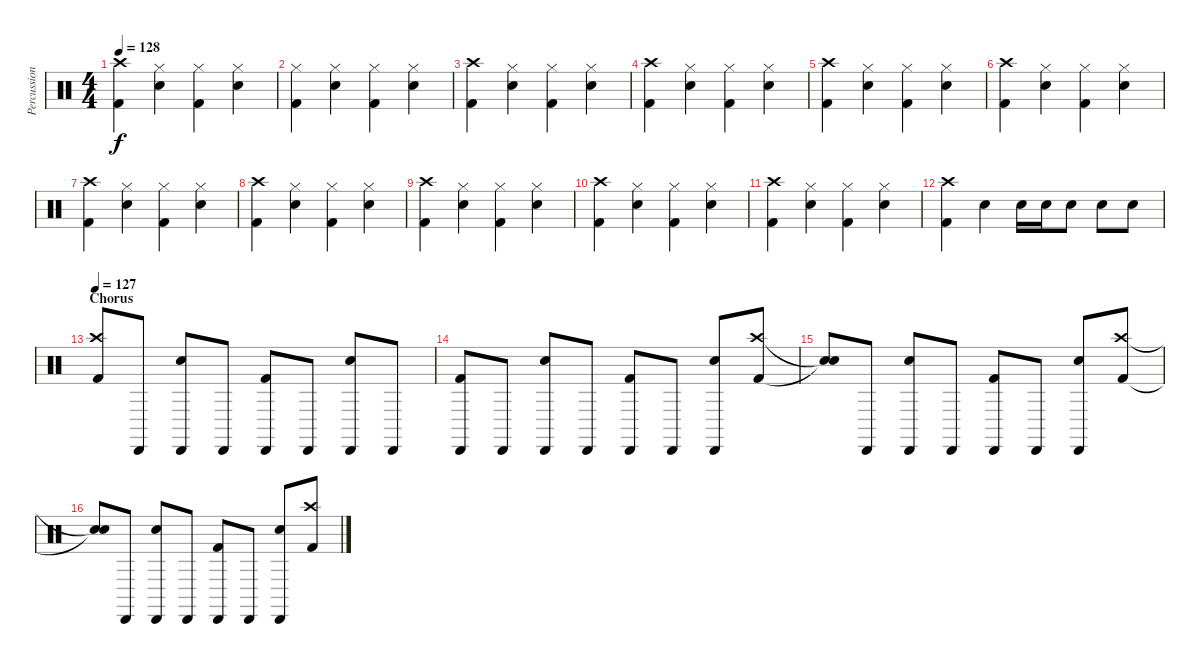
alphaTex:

\track ("Percussion" "Percussion") {instrument percussion}
\staff {score}
\articulation defaults
\ts (4 4)
\tempo 128
\clef neutral
\ks c
("Kick (hit) 2" "Crash high (hit)").4{dy f} ("Snare (hit) 2" "Hi-Hat (closed)").4 ("Kick (hit) 2" "Hi-Hat (closed)").4 ("Snare (hit) 2" "Hi-Hat (closed)").4 |
("Kick (hit) 2" "Hi-Hat (closed)").4 ("Snare (hit) 2" "Hi-Hat (closed)").4 ("Kick (hit) 2" "Hi-Hat (closed)").4 ("Snare (hit) 2" "Hi-Hat (closed)").4 |
("Kick (hit) 2" "Crash high (hit)").4 ("Snare (hit) 2" "Hi-Hat (closed)").4 ("Kick (hit) 2" "Hi-Hat (closed)").4 ("Snare (hit) 2" "Hi-Hat (closed)").4 |
("Kick (hit) 2" "Crash high (hit)").4 ("Snare (hit) 2" "Hi-Hat (closed)").4 ("Kick (hit) 2" "Hi-Hat (closed)").4 ("Snare (hit) 2" "Hi-Hat (closed)").4 |
("Kick (hit) 2" "Crash high (hit)").4 ("Snare (hit) 2" "Hi-Hat (closed)").4 ("Kick (hit) 2" "Hi-Hat (closed)").4 ("Snare (hit) 2" "Hi-Hat (closed)").4 |
("Kick (hit) 2" "Crash high (hit)").4 ("Snare (hit) 2" "Hi-Hat (closed)").4 ("Kick (hit) 2" "Hi-Hat (closed)").4 ("Snare (hit) 2" "Hi-Hat (closed)").4 |
("Kick (hit) 2" "Crash high (hit)").4 ("Snare (hit) 2" "Hi-Hat (closed)").4 ("Kick (hit) 2" "Hi-Hat (closed)").4 ("Snare (hit) 2" "Hi-Hat (closed)").4 |
("Kick (hit) 2" "Crash high (hit)").4 ("Snare (hit) 2" "Hi-Hat (closed)").4 ("Kick (hit) 2" "Hi-Hat (closed)").4 ("Snare (hit) 2" "Hi-Hat (closed)").4 |
("Kick (hit) 2" "Crash high (hit)").4 ("Snare (hit) 2" "Hi-Hat (closed)").4 ("Kick (hit) 2" "Hi-Hat (closed)").4 ("Snare (hit) 2" "Hi-Hat (closed)").4 |
("Kick (hit) 2" "Crash high (hit)").4 ("Snare (hit) 2" "Hi-Hat (closed)").4 ("Kick (hit) 2" "Hi-Hat (closed)").4 ("Snare (hit) 2" "Hi-Hat (closed)").4 |
("Kick (hit) 2" "Crash high (hit)").4 ("Snare (hit) 2" "Hi-Hat (closed)").4 ("Kick (hit) 2" "Hi-Hat (closed)").4 ("Snare (hit) 2" "Hi-Hat (closed)").4 |
("Kick (hit) 2" "Crash high (hit)").4 "Snare (hit) 2".4 "Snare (hit) 2".16 "Snare (hit) 2".16 "Snare (hit) 2".8 "Snare (hit) 2".8 "Snare (hit) 2".8 |
\section ("" "Chorus")
\tempo 127
("Kick (hit) 2" "Crash high (hit)").8 "Cabasa (hit)".8 ("Snare (hit) 2" "Cabasa (hit)").8 "Cabasa (hit)".8 ("Kick (hit) 2" "Cabasa (hit)").8 "Cabasa (hit)".8 ("Snare (hit) 2" "Cabasa (hit)").8 "Cabasa (hit)".8 |
("Kick (hit) 2" "Cabasa (hit)").8 "Cabasa (hit)".8 ("Snare (hit) 2" "Cabasa (hit)").8 "Cabasa (hit)".8 ("Kick (hit) 2" "Cabasa (hit)").8 "Cabasa (hit)".8 ("Snare (hit) 2" "Cabasa (hit)").8 ("Kick (hit) 2" "Crash high (hit)").8 |
("Snare (hit)"{t} "Snare (hit)"{t}).8 "Cabasa (hit)".8 ("Snare (hit) 2" "Cabasa (hit)").8 "Cabasa (hit)".8 ("Kick (hit) 2" "Cabasa (hit)").8 "Cabasa (hit)".8 ("Snare (hit) 2" "Cabasa (hit)").8 ("Kick (hit) 2" "Crash high (hit)").8 |
("Snare (hit)"{t} "Snare (hit)"{t}).8 "Cabasa (hit)".8 ("Snare (hit) 2" "Cabasa (hit)").8 "Cabasa (hit)".8 ("Kick (hit) 2" "Cabasa (hit)").8 "Cabasa (hit)".8 ("Snare (hit) 2" "Cabasa (hit)").8 ("Kick (hit) 2" "Crash high (hit)").8
